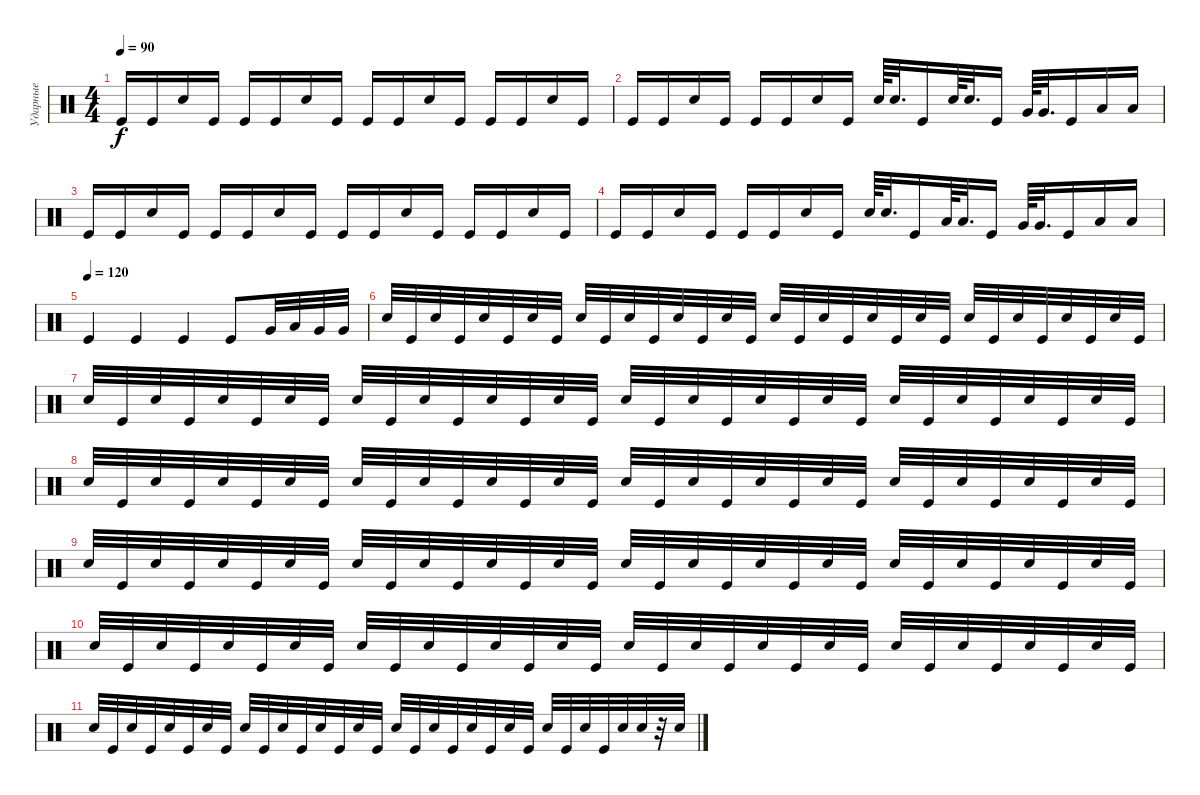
\track ("Ударные" "Ударные") {instrument percussion}
\staff {score}
\articulation defaults
\ts (4 4)
\tempo 90
\clef neutral
\ks c "Kick (hit)".16{dy f} "Kick (hit)".16 "Snare (hit) 2".16 "Kick (hit)".16 "Kick (hit)".16 "Kick (hit)".16 "Snare (hit) 2".16 "Kick (hit)".16 "Kick (hit)".16 "Kick (hit)".16 "Snare (hit) 2".16 "Kick (hit)".16 "Kick (hit)".16 "Kick (hit)".16 "Snare (hit) 2".16 "Kick (hit)".16
|
"Kick (hit)".16 "Kick (hit)".16 "Snare (hit) 2".16 "Kick (hit)".16 "Kick (hit)".16 "Kick (hit)".16 "Snare (hit) 2".16 "Kick (hit)".16 "Snare (hit) 2".64 "Snare (hit) 2".32{d} "Kick (hit)".16 "Snare (hit) 2".64 "Snare (hit) 2".32{d} "Kick (hit)".16 "Very Low Tom (hit)".64 "Very Low Tom (hit)".32{d} "Kick (hit)".16 "Low Floor Tom (hit)".16 "Low Floor Tom (hit)".16 |
"Kick (hit)".16 "Kick (hit)".16 "Snare (hit) 2".16 "Kick (hit)".16 "Kick (hit)".16 "Kick (hit)".16 "Snare (hit) 2".16 "Kick (hit)".16 "Kick (hit)".16 "Kick (hit)".16 "Snare (hit) 2".16 "Kick (hit)".16 "Kick (hit)".16 "Kick (hit)".16 "Snare (hit) 2".16 "Kick (hit)".16 |
"Kick (hit)".16 "Kick (hit)".16 "Snare (hit) 2".16 "Kick (hit)".16 "Kick (hit)".16 "Kick (hit)".16 "Snare (hit) 2".16 "Kick (hit)".16 "Snare (hit) 2".64 "Snare (hit) 2".32{d} "Kick (hit)".16 "Low Tom (hit)".64 "Low Tom (hit)".32{d} "Kick (hit)".16 "Very Low Tom (hit)".64 "Very Low Tom (hit)".32{d} "Kick (hit)".16 "Low Floor Tom (hit)".16 "Low Floor Tom (hit)".16 |
\tempo (120)
"Kick (hit)".4 "Kick (hit)".4 "Kick (hit)".4 "Kick (hit)".8 "Very Low Tom (hit)".32 "Low Tom (hit)".32 "Very Low Tom (hit)".32 "Very Low Tom (hit)".32 |
"Snare (hit) 2".32 "Kick (hit)".32 "Snare (hit) 2".32 "Kick (hit)".32 "Snare (hit) 2".32 "Kick (hit)".32 "Snare (hit) 2".32 "Kick (hit)".32 "Snare (hit) 2".32 "Kick (hit)".32 "Snare (hit) 2".32 "Kick (hit)".32 "Snare (hit) 2".32 "Kick (hit)".32 "Snare (hit) 2".32 "Kick (hit)".32 "Snare (hit) 2".32 "Kick (hit)".32 "Snare (hit) 2".32 "Kick (hit)".32 "Snare (hit) 2".32 "Kick (hit)".32 "Snare (hit) 2".32 "Kick (hit)".32 "Snare (hit) 2".32 "Kick (hit)".32 "Snare (hit) 2".32 "Kick (hit)".32 "Snare (hit) 2".32 "Kick (hit)".32 "Snare (hit) 2".32 "Kick (hit)".32 |
"Snare (hit) 2".32 "Kick (hit)".32 "Snare (hit) 2".32 "Kick (hit)".32 "Snare (hit) 2".32 "Kick (hit)".32 "Snare (hit) 2".32 "Kick (hit)".32 "Snare (hit) 2".32 "Kick (hit)".32 "Snare (hit) 2".32 "Kick (hit)".32 "Snare (hit) 2".32 "Kick (hit)".32 "Snare (hit) 2".32 "Kick (hit)".32 "Snare (hit) 2".32 "Kick (hit)".32 "Snare (hit) 2".32 "Kick (hit)".32 "Snare (hit) 2".32 "Kick (hit)".32 "Snare (hit) 2".32 "Kick (hit)".32 "Snare (hit) 2".32 "Kick (hit)".32 "Snare (hit) 2".32 "Kick (hit)".32 "Snare (hit) 2".32 "Kick (hit)".32 "Snare (hit) 2".32 "Kick (hit)".32 |
"Snare (hit) 2".32 "Kick (hit)".32 "Snare (hit) 2".32 "Kick (hit)".32 "Snare (hit) 2".32 "Kick (hit)".32 "Snare (hit) 2".32 "Kick (hit)".32 "Snare (hit) 2".32 "Kick (hit)".32 "Snare (hit) 2".32 "Kick (hit)".32 "Snare (hit) 2".32 "Kick (hit)".32 "Snare (hit) 2".32 "Kick (hit)".32 "Snare (hit) 2".32 "Kick (hit)".32 "Snare (hit) 2".32 "Kick (hit)".32 "Snare (hit) 2".32 "Kick (hit)".32 "Snare (hit) 2".32 "Kick (hit)".32 "Snare (hit) 2".32 "Kick (hit)".32 "Snare (hit) 2".32 "Kick (hit)".32 "Snare (hit) 2".32 "Kick (hit)".32 "Snare (hit) 2".32 "Kick (hit)".32 |
"Snare (hit) 2".32 "Kick (hit)".32 "Snare (hit) 2".32 "Kick (hit)".32 "Snare (hit) 2".32 "Kick (hit)".32 "Snare (hit) 2".32 "Kick (hit)".32 "Snare (hit) 2".32 "Kick (hit)".32 "Snare (hit) 2".32 "Kick (hit)".32 "Snare (hit) 2".32 "Kick (hit)".32 "Snare (hit) 2".32 "Kick (hit)".32 "Snare (hit) 2".32 "Kick (hit)".32 "Snare (hit) 2".32 "Kick (hit)".32 "Snare (hit) 2".32 "Kick (hit)".32 "Snare (hit) 2".32 "Kick (hit)".32 "Snare (hit) 2".32 "Kick (hit)".32 "Snare (hit) 2".32 "Kick (hit)".32 "Snare (hit) 2".32 "Kick (hit)".32 "Snare (hit) 2".32 "Kick (hit)".32 |
"Snare (hit) 2".32 "Kick (hit)".32 "Snare (hit) 2".32 "Kick (hit)".32 "Snare (hit) 2".32 "Kick (hit)".32 "Snare (hit) 2".32 "Kick (hit)".32 "Snare (hit) 2".32 "Kick (hit)".32 "Snare (hit) 2".32 "Kick (hit)".32 "Snare (hit) 2".32 "Kick (hit)".32 "Snare (hit) 2".32 "Kick (hit)".32 "Snare (hit) 2".32 "Kick (hit)".32 "Snare (hit) 2".32 "Kick (hit)".32 "Snare (hit) 2".32 "Kick (hit)".32 "Snare (hit) 2".32 "Kick (hit)".32 "Snare (hit) 2".32 "Kick (hit)".32 "Snare (hit) 2".32 "Kick (hit)".32 "Snare (hit) 2".32 "Kick (hit)".32 "Snare (hit) 2".32 "Kick (hit)".32 |
"Snare (hit) 2".32 "Kick (hit)".32 "Snare (hit) 2".32 "Kick (hit)".32 "Snare (hit) 2".32 "Kick (hit)".32 "Snare (hit) 2".32 "Kick (hit)".32 "Snare (hit) 2".32 "Kick (hit)".32 "Snare (hit) 2".32 "Kick (hit)".32 "Snare (hit) 2".32 "Kick (hit)".32 "Snare (hit) 2".32 "Kick (hit)".32 "Snare (hit) 2".32 "Kick (hit)".32 "Snare (hit) 2".32 "Kick (hit)".32 "Snare (hit) 2".32 "Kick (hit)".32 "Snare (hit) 2".32 "Kick (hit)".32 "Snare (hit) 2".32 "Kick (hit)".32 "Snare (hit) 2".32 "Kick (hit)".32 "Snare (hit) 2".32 "Snare (hit) 2".32 r.32 "Snare (hit) 2".32
